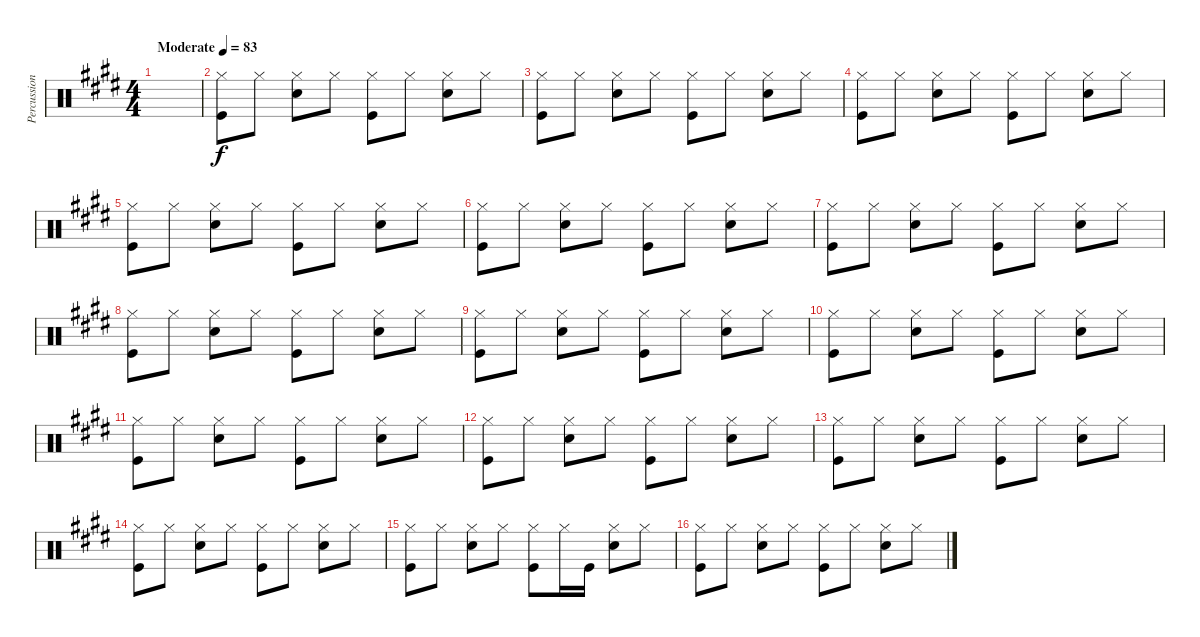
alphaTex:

\track ("Percussion" "Percussion") {instrument percussion}
\staff {score}
\articulation defaults
\ts (4 4)
\tempo (83 "Moderate")
\clef neutral
\ks e
|
("Kick (hit)" "Hi-Hat (closed)").8 "Hi-Hat (closed)".8 ("Hi-Hat (closed)" "Snare (hit) 2").8 "Hi-Hat (closed)".8 ("Hi-Hat (closed)" "Kick (hit)").8 "Hi-Hat (closed)".8 ("Hi-Hat (closed)" "Snare (hit) 2").8 "Hi-Hat (closed)".8 |
("Kick (hit)" "Hi-Hat (closed)").8 "Hi-Hat (closed)".8 ("Hi-Hat (closed)" "Snare (hit) 2").8 "Hi-Hat (closed)".8 ("Hi-Hat (closed)" "Kick (hit)").8 "Hi-Hat (closed)".8 ("Hi-Hat (closed)" "Snare (hit) 2").8 "Hi-Hat (closed)".8 |
("Kick (hit)" "Hi-Hat (closed)").8 "Hi-Hat (closed)".8 ("Hi-Hat (closed)" "Snare (hit) 2").8 "Hi-Hat (closed)".8 ("Hi-Hat (closed)" "Kick (hit)").8 "Hi-Hat (closed)".8 ("Hi-Hat (closed)" "Snare (hit) 2").8 "Hi-Hat (closed)".8 |
("Kick (hit)" "Hi-Hat (closed)").8 "Hi-Hat (closed)".8 ("Hi-Hat (closed)" "Snare (hit) 2").8 "Hi-Hat (closed)".8 ("Hi-Hat (closed)" "Kick (hit)").8 "Hi-Hat (closed)".8 ("Hi-Hat (closed)" "Snare (hit) 2").8 "Hi-Hat (closed)".8 |
("Kick (hit)" "Hi-Hat (closed)").8 "Hi-Hat (closed)".8 ("Hi-Hat (closed)" "Snare (hit) 2").8 "Hi-Hat (closed)".8 ("Hi-Hat (closed)" "Kick (hit)").8 "Hi-Hat (closed)".8 ("Hi-Hat (closed)" "Snare (hit) 2").8 "Hi-Hat (closed)".8 |
("Kick (hit)" "Hi-Hat (closed)").8 "Hi-Hat (closed)".8 ("Hi-Hat (closed)" "Snare (hit) 2").8 "Hi-Hat (closed)".8 ("Hi-Hat (closed)" "Kick (hit)").8 "Hi-Hat (closed)".8 ("Hi-Hat (closed)" "Snare (hit) 2").8 "Hi-Hat (closed)".8 |
("Kick (hit)" "Hi-Hat (closed)").8 "Hi-Hat (closed)".8 ("Hi-Hat (closed)" "Snare (hit) 2").8 "Hi-Hat (closed)".8 ("Hi-Hat (closed)" "Kick (hit)").8 "Hi-Hat (closed)".8 ("Hi-Hat (closed)" "Snare (hit) 2").8 "Hi-Hat (closed)".8 |
("Kick (hit)" "Hi-Hat (closed)").8 "Hi-Hat (closed)".8 ("Hi-Hat (closed)" "Snare (hit) 2").8 "Hi-Hat (closed)".8 ("Hi-Hat (closed)" "Kick (hit)").8 "Hi-Hat (closed)".8 ("Hi-Hat (closed)" "Snare (hit) 2").8 "Hi-Hat (closed)".8 |
("Kick (hit)" "Hi-Hat (closed)").8 "Hi-Hat (closed)".8 ("Hi-Hat (closed)" "Snare (hit) 2").8 "Hi-Hat (closed)".8 ("Hi-Hat (closed)" "Kick (hit)").8 "Hi-Hat (closed)".8 ("Hi-Hat (closed)" "Snare (hit) 2").8 "Hi-Hat (closed)".8 |
("Kick (hit)" "Hi-Hat (closed)").8 "Hi-Hat (closed)".8 ("Hi-Hat (closed)" "Snare (hit) 2").8 "Hi-Hat (closed)".8 ("Hi-Hat (closed)" "Kick (hit)").8 "Hi-Hat (closed)".8 ("Hi-Hat (closed)" "Snare (hit) 2").8 "Hi-Hat (closed)".8 |
("Kick (hit)" "Hi-Hat (closed)").8 "Hi-Hat (closed)".8 ("Hi-Hat (closed)" "Snare (hit) 2").8 "Hi-Hat (closed)".8 ("Hi-Hat (closed)" "Kick (hit)").8 "Hi-Hat (closed)".8 ("Hi-Hat (closed)" "Snare (hit) 2").8 "Hi-Hat (closed)".8 |
("Kick (hit)" "Hi-Hat (closed)").8 "Hi-Hat (closed)".8 ("Hi-Hat (closed)" "Snare (hit) 2").8 "Hi-Hat (closed)".8 ("Hi-Hat (closed)" "Kick (hit)").8 "Hi-Hat (closed)".8 ("Hi-Hat (closed)" "Snare (hit) 2").8 "Hi-Hat (closed)".8 |
("Kick (hit)" "Hi-Hat (closed)").8 "Hi-Hat (closed)".8 ("Hi-Hat (closed)" "Snare (hit) 2").8 "Hi-Hat (closed)".8 ("Hi-Hat (closed)" "Kick (hit)").8 "Hi-Hat (closed)".8 ("Hi-Hat (closed)" "Snare (hit) 2").8 "Hi-Hat (closed)".8 |
("Kick (hit)" "Hi-Hat (closed)").8 "Hi-Hat (closed)".8 ("Hi-Hat (closed)" "Snare (hit) 2").8 "Hi-Hat (closed)".8 ("Hi-Hat (closed)" "Kick (hit)").8 "Hi-Hat (closed)".16 "Kick (hit)".16 ("Snare (hit) 2" "Hi-Hat (closed)").8 "Hi-Hat (closed)".8 |
("Kick (hit)" "Hi-Hat (closed)").8 "Hi-Hat (closed)".8 ("Hi-Hat (closed)" "Snare (hit) 2").8 "Hi-Hat (closed)".8 ("Hi-Hat (closed)" "Kick (hit)").8 "Hi-Hat (closed)".8 ("Hi-Hat (closed)" "Snare (hit) 2").8 "Hi-Hat (closed)".8
